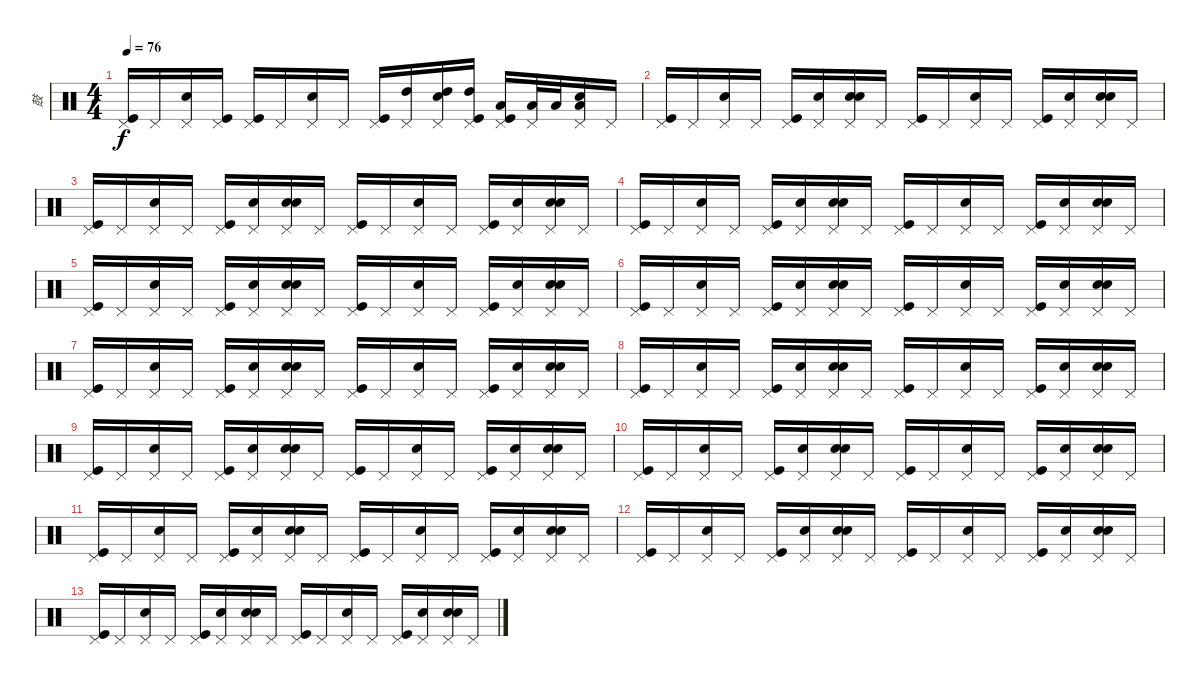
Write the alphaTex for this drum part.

\track ("鼓" "鼓") {instrument percussion}
\staff {score}
\articulation defaults
\ts (4 4)
\tempo 76
\clef neutral
\ks c
("Pedal Hi-Hat (hit)" "Kick (hit)").16{dy f} "Pedal Hi-Hat (hit)".16 ("Pedal Hi-Hat (hit)" "Snare (hit) 2").16 ("Pedal Hi-Hat (hit)" "Kick (hit)").16 ("Pedal Hi-Hat (hit)" "Kick (hit)").16 "Pedal Hi-Hat (hit)".16 ("Pedal Hi-Hat (hit)" "Snare (hit) 2").16 "Pedal Hi-Hat (hit)".16 ("Pedal Hi-Hat (hit)" "Kick (hit)").16 ("Pedal Hi-Hat (hit)" "High Tom (hit)").16 ("Pedal Hi-Hat (hit)" "High Tom (hit)" "Snare (hit) 2").16 ("Pedal Hi-Hat (hit)" "High Tom (hit)" "Kick (hit)").16 ("Pedal Hi-Hat (hit)" "Low Tom (hit)" "Kick (hit)").16 ("Pedal Hi-Hat (hit)" "Low Tom (hit)").32 "Low Tom (hit)".32 ("Pedal Hi-Hat (hit)" "Low Tom (hit)" "Snare (hit) 2").16 "Pedal Hi-Hat (hit)".16 |
("Pedal Hi-Hat (hit)" "Kick (hit)").16 "Pedal Hi-Hat (hit)".16 ("Pedal Hi-Hat (hit)" "Snare (hit) 2").16 "Pedal Hi-Hat (hit)".16 ("Pedal Hi-Hat (hit)" "Kick (hit)").16 ("Pedal Hi-Hat (hit)" "Hand Clap (hit)").16 ("Pedal Hi-Hat (hit)" "Hand Clap (hit)" "Snare (hit) 2").16 "Pedal Hi-Hat (hit)".16 ("Pedal Hi-Hat (hit)" "Kick (hit)").16 "Pedal Hi-Hat (hit)".16 ("Pedal Hi-Hat (hit)" "Snare (hit) 2").16 "Pedal Hi-Hat (hit)".16 ("Pedal Hi-Hat (hit)" "Kick (hit)").16 ("Pedal Hi-Hat (hit)" "Hand Clap (hit)").16 ("Pedal Hi-Hat (hit)" "Hand Clap (hit)" "Snare (hit) 2").16 "Pedal Hi-Hat (hit)".16 |
("Pedal Hi-Hat (hit)" "Kick (hit)").16 "Pedal Hi-Hat (hit)".16 ("Pedal Hi-Hat (hit)" "Snare (hit) 2").16 "Pedal Hi-Hat (hit)".16 ("Pedal Hi-Hat (hit)" "Kick (hit)").16 ("Pedal Hi-Hat (hit)" "Hand Clap (hit)").16 ("Pedal Hi-Hat (hit)" "Hand Clap (hit)" "Snare (hit) 2").16 "Pedal Hi-Hat (hit)".16 ("Pedal Hi-Hat (hit)" "Kick (hit)").16 "Pedal Hi-Hat (hit)".16 ("Pedal Hi-Hat (hit)" "Snare (hit) 2").16 "Pedal Hi-Hat (hit)".16 ("Pedal Hi-Hat (hit)" "Kick (hit)").16 ("Pedal Hi-Hat (hit)" "Hand Clap (hit)").16 ("Pedal Hi-Hat (hit)" "Hand Clap (hit)" "Snare (hit) 2").16 "Pedal Hi-Hat (hit)".16 |
("Pedal Hi-Hat (hit)" "Kick (hit)").16 "Pedal Hi-Hat (hit)".16 ("Pedal Hi-Hat (hit)" "Snare (hit) 2").16 "Pedal Hi-Hat (hit)".16 ("Pedal Hi-Hat (hit)" "Kick (hit)").16 ("Pedal Hi-Hat (hit)" "Hand Clap (hit)").16 ("Pedal Hi-Hat (hit)" "Hand Clap (hit)" "Snare (hit) 2").16 "Pedal Hi-Hat (hit)".16 ("Pedal Hi-Hat (hit)" "Kick (hit)").16 "Pedal Hi-Hat (hit)".16 ("Pedal Hi-Hat (hit)" "Snare (hit) 2").16 "Pedal Hi-Hat (hit)".16 ("Pedal Hi-Hat (hit)" "Kick (hit)").16 ("Pedal Hi-Hat (hit)" "Hand Clap (hit)").16 ("Pedal Hi-Hat (hit)" "Hand Clap (hit)" "Snare (hit) 2").16 "Pedal Hi-Hat (hit)".16 |
("Pedal Hi-Hat (hit)" "Kick (hit)").16 "Pedal Hi-Hat (hit)".16 ("Pedal Hi-Hat (hit)" "Snare (hit) 2").16 "Pedal Hi-Hat (hit)".16 ("Pedal Hi-Hat (hit)" "Kick (hit)").16 ("Pedal Hi-Hat (hit)" "Hand Clap (hit)").16 ("Pedal Hi-Hat (hit)" "Hand Clap (hit)" "Snare (hit) 2").16 "Pedal Hi-Hat (hit)".16 ("Pedal Hi-Hat (hit)" "Kick (hit)").16 "Pedal Hi-Hat (hit)".16 ("Pedal Hi-Hat (hit)" "Snare (hit) 2").16 "Pedal Hi-Hat (hit)".16 ("Pedal Hi-Hat (hit)" "Kick (hit)").16 ("Pedal Hi-Hat (hit)" "Hand Clap (hit)").16 ("Pedal Hi-Hat (hit)" "Hand Clap (hit)" "Snare (hit) 2").16 "Pedal Hi-Hat (hit)".16 |
("Pedal Hi-Hat (hit)" "Kick (hit)").16 "Pedal Hi-Hat (hit)".16 ("Pedal Hi-Hat (hit)" "Snare (hit) 2").16 "Pedal Hi-Hat (hit)".16 ("Pedal Hi-Hat (hit)" "Kick (hit)").16 ("Pedal Hi-Hat (hit)" "Hand Clap (hit)").16 ("Pedal Hi-Hat (hit)" "Hand Clap (hit)" "Snare (hit) 2").16 "Pedal Hi-Hat (hit)".16 ("Pedal Hi-Hat (hit)" "Kick (hit)").16 "Pedal Hi-Hat (hit)".16 ("Pedal Hi-Hat (hit)" "Snare (hit) 2").16 "Pedal Hi-Hat (hit)".16 ("Pedal Hi-Hat (hit)" "Kick (hit)").16 ("Pedal Hi-Hat (hit)" "Hand Clap (hit)").16 ("Pedal Hi-Hat (hit)" "Hand Clap (hit)" "Snare (hit) 2").16 "Pedal Hi-Hat (hit)".16 |
("Pedal Hi-Hat (hit)" "Kick (hit)").16 "Pedal Hi-Hat (hit)".16 ("Pedal Hi-Hat (hit)" "Snare (hit) 2").16 "Pedal Hi-Hat (hit)".16 ("Pedal Hi-Hat (hit)" "Kick (hit)").16 ("Pedal Hi-Hat (hit)" "Hand Clap (hit)").16 ("Pedal Hi-Hat (hit)" "Hand Clap (hit)" "Snare (hit) 2").16 "Pedal Hi-Hat (hit)".16 ("Pedal Hi-Hat (hit)" "Kick (hit)").16 "Pedal Hi-Hat (hit)".16 ("Pedal Hi-Hat (hit)" "Snare (hit) 2").16 "Pedal Hi-Hat (hit)".16 ("Pedal Hi-Hat (hit)" "Kick (hit)").16 ("Pedal Hi-Hat (hit)" "Hand Clap (hit)").16 ("Pedal Hi-Hat (hit)" "Hand Clap (hit)" "Snare (hit) 2").16 "Pedal Hi-Hat (hit)".16 |
("Pedal Hi-Hat (hit)" "Kick (hit)").16 "Pedal Hi-Hat (hit)".16 ("Pedal Hi-Hat (hit)" "Snare (hit) 2").16 "Pedal Hi-Hat (hit)".16 ("Pedal Hi-Hat (hit)" "Kick (hit)").16 ("Pedal Hi-Hat (hit)" "Hand Clap (hit)").16 ("Pedal Hi-Hat (hit)" "Hand Clap (hit)" "Snare (hit) 2").16 "Pedal Hi-Hat (hit)".16 ("Pedal Hi-Hat (hit)" "Kick (hit)").16 "Pedal Hi-Hat (hit)".16 ("Pedal Hi-Hat (hit)" "Snare (hit) 2").16 "Pedal Hi-Hat (hit)".16 ("Pedal Hi-Hat (hit)" "Kick (hit)").16 ("Pedal Hi-Hat (hit)" "Hand Clap (hit)").16 ("Pedal Hi-Hat (hit)" "Hand Clap (hit)" "Snare (hit) 2").16 "Pedal Hi-Hat (hit)".16 |
("Pedal Hi-Hat (hit)" "Kick (hit)").16 "Pedal Hi-Hat (hit)".16 ("Pedal Hi-Hat (hit)" "Snare (hit) 2").16 "Pedal Hi-Hat (hit)".16 ("Pedal Hi-Hat (hit)" "Kick (hit)").16 ("Pedal Hi-Hat (hit)" "Hand Clap (hit)").16 ("Pedal Hi-Hat (hit)" "Hand Clap (hit)" "Snare (hit) 2").16 "Pedal Hi-Hat (hit)".16 ("Pedal Hi-Hat (hit)" "Kick (hit)").16 "Pedal Hi-Hat (hit)".16 ("Pedal Hi-Hat (hit)" "Snare (hit) 2").16 "Pedal Hi-Hat (hit)".16 ("Pedal Hi-Hat (hit)" "Kick (hit)").16 ("Pedal Hi-Hat (hit)" "Hand Clap (hit)").16 ("Pedal Hi-Hat (hit)" "Hand Clap (hit)" "Snare (hit) 2").16 "Pedal Hi-Hat (hit)".16 |
("Pedal Hi-Hat (hit)" "Kick (hit)").16 "Pedal Hi-Hat (hit)".16 ("Pedal Hi-Hat (hit)" "Snare (hit) 2").16 "Pedal Hi-Hat (hit)".16 ("Pedal Hi-Hat (hit)" "Kick (hit)").16 ("Pedal Hi-Hat (hit)" "Hand Clap (hit)").16 ("Pedal Hi-Hat (hit)" "Hand Clap (hit)" "Snare (hit) 2").16 "Pedal Hi-Hat (hit)".16 ("Pedal Hi-Hat (hit)" "Kick (hit)").16 "Pedal Hi-Hat (hit)".16 ("Pedal Hi-Hat (hit)" "Snare (hit) 2").16 "Pedal Hi-Hat (hit)".16 ("Pedal Hi-Hat (hit)" "Kick (hit)").16 ("Pedal Hi-Hat (hit)" "Hand Clap (hit)").16 ("Pedal Hi-Hat (hit)" "Hand Clap (hit)" "Snare (hit) 2").16 "Pedal Hi-Hat (hit)".16 |
("Pedal Hi-Hat (hit)" "Kick (hit)").16 "Pedal Hi-Hat (hit)".16 ("Pedal Hi-Hat (hit)" "Snare (hit) 2").16 "Pedal Hi-Hat (hit)".16 ("Pedal Hi-Hat (hit)" "Kick (hit)").16 ("Pedal Hi-Hat (hit)" "Hand Clap (hit)").16 ("Pedal Hi-Hat (hit)" "Hand Clap (hit)" "Snare (hit) 2").16 "Pedal Hi-Hat (hit)".16 ("Pedal Hi-Hat (hit)" "Kick (hit)").16 "Pedal Hi-Hat (hit)".16 ("Pedal Hi-Hat (hit)" "Snare (hit) 2").16 "Pedal Hi-Hat (hit)".16 ("Pedal Hi-Hat (hit)" "Kick (hit)").16 ("Pedal Hi-Hat (hit)" "Hand Clap (hit)").16 ("Pedal Hi-Hat (hit)" "Hand Clap (hit)" "Snare (hit) 2").16 "Pedal Hi-Hat (hit)".16 |
("Pedal Hi-Hat (hit)" "Kick (hit)").16 "Pedal Hi-Hat (hit)".16 ("Pedal Hi-Hat (hit)" "Snare (hit) 2").16 "Pedal Hi-Hat (hit)".16 ("Pedal Hi-Hat (hit)" "Kick (hit)").16 ("Pedal Hi-Hat (hit)" "Hand Clap (hit)").16 ("Pedal Hi-Hat (hit)" "Hand Clap (hit)" "Snare (hit) 2").16 "Pedal Hi-Hat (hit)".16 ("Pedal Hi-Hat (hit)" "Kick (hit)").16 "Pedal Hi-Hat (hit)".16 ("Pedal Hi-Hat (hit)" "Snare (hit) 2").16 "Pedal Hi-Hat (hit)".16 ("Pedal Hi-Hat (hit)" "Kick (hit)").16 ("Pedal Hi-Hat (hit)" "Hand Clap (hit)").16 ("Pedal Hi-Hat (hit)" "Hand Clap (hit)" "Snare (hit) 2").16 "Pedal Hi-Hat (hit)".16 |
("Pedal Hi-Hat (hit)" "Kick (hit)").16 "Pedal Hi-Hat (hit)".16 ("Pedal Hi-Hat (hit)" "Snare (hit) 2").16 "Pedal Hi-Hat (hit)".16 ("Pedal Hi-Hat (hit)" "Kick (hit)").16 ("Pedal Hi-Hat (hit)" "Hand Clap (hit)").16 ("Pedal Hi-Hat (hit)" "Hand Clap (hit)" "Snare (hit) 2").16 "Pedal Hi-Hat (hit)".16 ("Pedal Hi-Hat (hit)" "Kick (hit)").16 "Pedal Hi-Hat (hit)".16 ("Pedal Hi-Hat (hit)" "Snare (hit) 2").16 "Pedal Hi-Hat (hit)".16 ("Pedal Hi-Hat (hit)" "Kick (hit)").16 ("Pedal Hi-Hat (hit)" "Hand Clap (hit)").16 ("Pedal Hi-Hat (hit)" "Hand Clap (hit)" "Snare (hit) 2").16 "Pedal Hi-Hat (hit)".16
